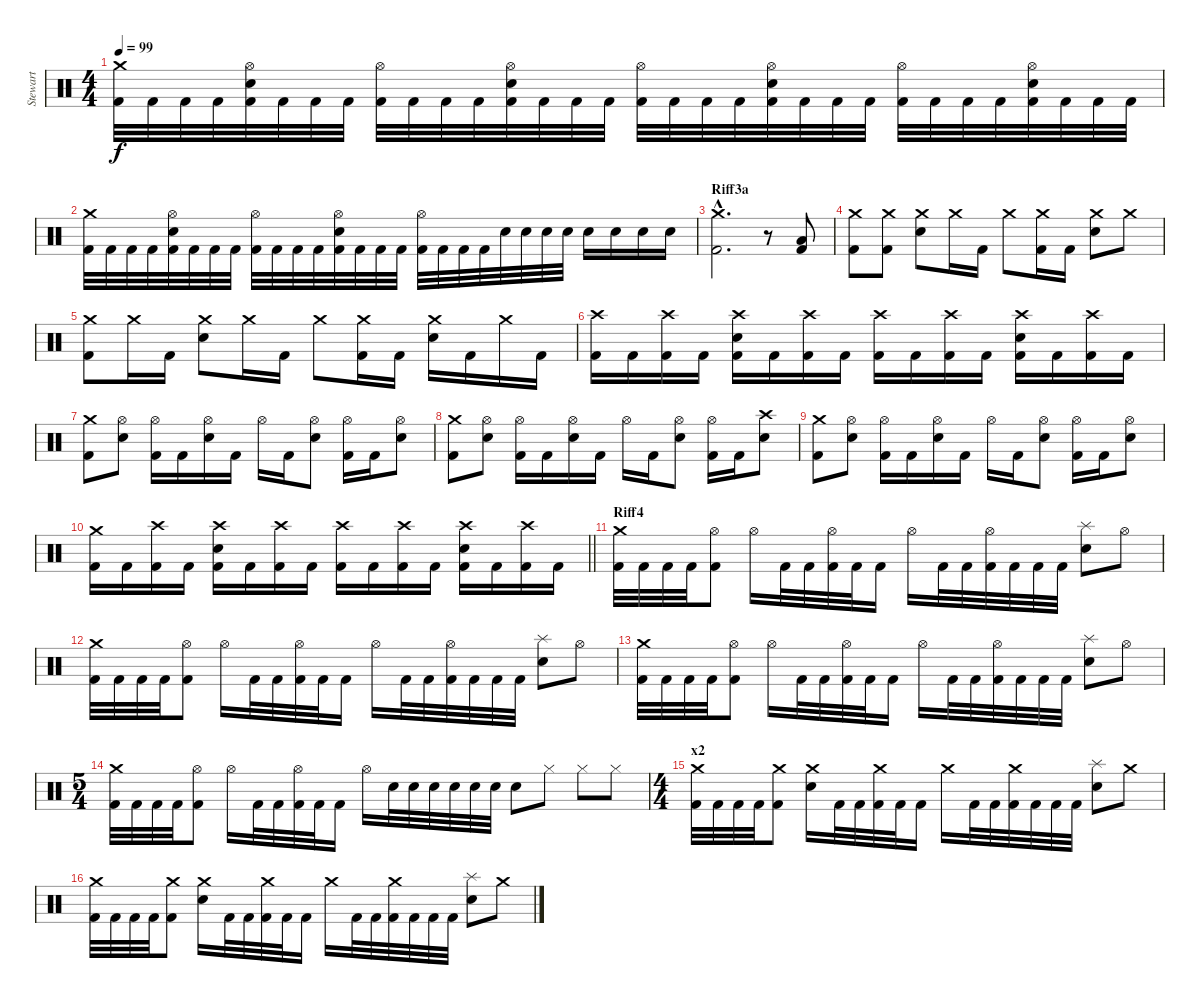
\track ("Stewart" "Stewart") {instrument percussion}
\staff {score}
\articulation defaults
\ts (4 4)
\tempo 99
\clef neutral
\ks c
("Crash medium (hit)" "Kick (hit) 2").32{dy f} "Kick (hit) 2".32 "Kick (hit) 2".32 "Kick (hit) 2".32 ("Hi-Hat (open)" "Electric Snare (hit)" "Kick (hit) 2").32 "Kick (hit) 2".32 "Kick (hit) 2".32 "Kick (hit) 2".32 ("Hi-Hat (open)" "Kick (hit) 2").32 "Kick (hit) 2".32 "Kick (hit) 2".32 "Kick (hit) 2".32 ("Hi-Hat (open)" "Electric Snare (hit)" "Kick (hit) 2").32 "Kick (hit) 2".32 "Kick (hit) 2".32 "Kick (hit) 2".32 ("Hi-Hat (open)" "Kick (hit) 2").32 "Kick (hit) 2".32 "Kick (hit) 2".32 "Kick (hit) 2".32 ("Hi-Hat (open)" "Electric Snare (hit)" "Kick (hit) 2").32 "Kick (hit) 2".32 "Kick (hit) 2".32 "Kick (hit) 2".32 ("Hi-Hat (open)" "Kick (hit) 2").32 "Kick (hit) 2".32 "Kick (hit) 2".32 "Kick (hit) 2".32 ("Hi-Hat (open)" "Electric Snare (hit)" "Kick (hit) 2").32 "Kick (hit) 2".32 "Kick (hit) 2".32 "Kick (hit) 2".32 |
("Crash medium (hit)" "Kick (hit) 2").32 "Kick (hit) 2".32 "Kick (hit) 2".32 "Kick (hit) 2".32 ("Hi-Hat (open)" "Electric Snare (hit)" "Kick (hit) 2").32 "Kick (hit) 2".32 "Kick (hit) 2".32 "Kick (hit) 2".32 ("Hi-Hat (open)" "Kick (hit) 2").32 "Kick (hit) 2".32 "Kick (hit) 2".32 "Kick (hit) 2".32 ("Hi-Hat (open)" "Electric Snare (hit)" "Kick (hit) 2").32 "Kick (hit) 2".32 "Kick (hit) 2".32 "Kick (hit) 2".32 ("Hi-Hat (open)" "Kick (hit) 2").32 "Kick (hit) 2".32 "Kick (hit) 2".32 "Kick (hit) 2".32 "Electric Snare (hit)".32 "Electric Snare (hit)".32 "Electric Snare (hit)".32 "Electric Snare (hit)".32 "Electric Snare (hit)".16 "Electric Snare (hit)".16 "Electric Snare (hit)".16 "Electric Snare (hit)".16 |
\section ("" "Riff3a")
("Crash medium (hit)"{hac} "Kick (hit) 2"{hac}).2{d} r.8 ("Low Tom (hit)" "Kick (hit) 2").8 |
("Crash medium (hit)" "Kick (hit) 2").8 ("Crash medium (hit)" "Kick (hit) 2").8 ("Crash medium (hit)" "Electric Snare (hit)").8 "Crash medium (hit)".16 "Kick (hit) 2".16 "Crash medium (hit)".8 ("Crash medium (hit)" "Kick (hit) 2").16 "Kick (hit) 2".16 ("Crash medium (hit)" "Electric Snare (hit)").8 "Crash medium (hit)".8 |
("Crash medium (hit)" "Kick (hit) 2").8 "Crash medium (hit)".16 "Kick (hit) 2".16 ("Crash medium (hit)" "Electric Snare (hit)").8 "Crash medium (hit)".16 "Kick (hit) 2".16 "Crash medium (hit)".8 ("Crash medium (hit)" "Kick (hit) 2").16 "Kick (hit) 2".16 ("Crash medium (hit)" "Electric Snare (hit)").16 "Kick (hit) 2".16 "Crash medium (hit)".16 "Kick (hit) 2".16 |
("Crash high (hit)" "Kick (hit) 2").16 "Kick (hit) 2".16 ("Crash high (hit)" "Kick (hit) 2").16 "Kick (hit) 2".16 ("Crash high (hit)" "Electric Snare (hit)" "Kick (hit) 2").16 "Kick (hit) 2".16 ("Crash high (hit)" "Kick (hit) 2").16 "Kick (hit) 2".16 ("Crash high (hit)" "Kick (hit) 2").16 "Kick (hit) 2".16 ("Crash high (hit)" "Kick (hit) 2").16 "Kick (hit) 2".16 ("Crash high (hit)" "Electric Snare (hit)" "Kick (hit) 2").16 "Kick (hit) 2".16 ("Crash high (hit)" "Kick (hit) 2").16 "Kick (hit) 2".16 |
("Crash medium (hit)" "Kick (hit) 2").8 ("Hi-Hat (open)" "Electric Snare (hit)").8 ("Hi-Hat (open)" "Kick (hit) 2").16 "Kick (hit) 2".16 ("Hi-Hat (open)" "Electric Snare (hit)").16 "Kick (hit) 2".16 "Hi-Hat (open)".16 "Kick (hit) 2".16 ("Hi-Hat (open)" "Electric Snare (hit)").8 ("Hi-Hat (open)" "Kick (hit) 2").16 "Kick (hit) 2".16 ("Hi-Hat (open)" "Electric Snare (hit)").8 |
("Crash medium (hit)" "Kick (hit) 2").8 ("Hi-Hat (open)" "Electric Snare (hit)").8 ("Hi-Hat (open)" "Kick (hit) 2").16 "Kick (hit) 2".16 ("Hi-Hat (open)" "Electric Snare (hit)").16 "Kick (hit) 2".16 "Hi-Hat (open)".16 "Kick (hit) 2".16 ("Hi-Hat (open)" "Electric Snare (hit)").8 ("Hi-Hat (open)" "Kick (hit) 2").16 "Kick (hit) 2".16 ("Crash high (hit)" "Electric Snare (hit)").8 |
("Crash medium (hit)" "Kick (hit) 2").8 ("Hi-Hat (open)" "Electric Snare (hit)").8 ("Hi-Hat (open)" "Kick (hit) 2").16 "Kick (hit) 2".16 ("Hi-Hat (open)" "Electric Snare (hit)").16 "Kick (hit) 2".16 "Hi-Hat (open)".16 "Kick (hit) 2".16 ("Hi-Hat (open)" "Electric Snare (hit)").8 ("Hi-Hat (open)" "Kick (hit) 2").16 "Kick (hit) 2".16 ("Hi-Hat (open)" "Electric Snare (hit)").8 |
\barLineRight lightlight
("Crash medium (hit)" "Kick (hit) 2").16 "Kick (hit) 2".16 ("Crash high (hit)" "Kick (hit) 2").16 "Kick (hit) 2".16 ("Crash high (hit)" "Electric Snare (hit)" "Kick (hit) 2").16 "Kick (hit) 2".16 ("Crash high (hit)" "Kick (hit) 2").16 "Kick (hit) 2".16 ("Crash high (hit)" "Kick (hit) 2").16 "Kick (hit) 2".16 ("Crash high (hit)" "Kick (hit) 2").16 "Kick (hit) 2".16 ("Crash high (hit)" "Electric Snare (hit)" "Kick (hit) 2").16 "Kick (hit) 2".16 ("Crash high (hit)" "Kick (hit) 2").16 "Kick (hit) 2".16 |
\section ("" "Riff4")
("Crash medium (hit)" "Kick (hit) 2").32 "Kick (hit) 2".32 "Kick (hit) 2".32 "Kick (hit) 2".32 ("Hi-Hat (open)" "Kick (hit) 2").8 "Hi-Hat (open)".16 "Kick (hit) 2".32 "Kick (hit) 2".32 ("Hi-Hat (open)" "Kick (hit) 2").32 "Kick (hit) 2".32 "Kick (hit) 2".16 "Hi-Hat (open)".16 "Kick (hit) 2".32 "Kick (hit) 2".32 ("Hi-Hat (open)" "Kick (hit) 2").32 "Kick (hit) 2".32 "Kick (hit) 2".32 "Kick (hit) 2".32 ("Splash (hit)" "Electric Snare (hit)").8 "Hi-Hat (open)".8 |
("Crash medium (hit)" "Kick (hit) 2").32 "Kick (hit) 2".32 "Kick (hit) 2".32 "Kick (hit) 2".32 ("Hi-Hat (open)" "Kick (hit) 2").8 "Hi-Hat (open)".16 "Kick (hit) 2".32 "Kick (hit) 2".32 ("Hi-Hat (open)" "Kick (hit) 2").32 "Kick (hit) 2".32 "Kick (hit) 2".16 "Hi-Hat (open)".16 "Kick (hit) 2".32 "Kick (hit) 2".32 ("Hi-Hat (open)" "Kick (hit) 2").32 "Kick (hit) 2".32 "Kick (hit) 2".32 "Kick (hit) 2".32 ("Splash (hit)" "Electric Snare (hit)").8 "Hi-Hat (open)".8 |
("Crash medium (hit)" "Kick (hit) 2").32 "Kick (hit) 2".32 "Kick (hit) 2".32 "Kick (hit) 2".32 ("Hi-Hat (open)" "Kick (hit) 2").8 "Hi-Hat (open)".16 "Kick (hit) 2".32 "Kick (hit) 2".32 ("Hi-Hat (open)" "Kick (hit) 2").32 "Kick (hit) 2".32 "Kick (hit) 2".16 "Hi-Hat (open)".16 "Kick (hit) 2".32 "Kick (hit) 2".32 ("Hi-Hat (open)" "Kick (hit) 2").32 "Kick (hit) 2".32 "Kick (hit) 2".32 "Kick (hit) 2".32 ("Splash (hit)" "Electric Snare (hit)").8 "Hi-Hat (open)".8 |
\ts (5 4)
("Crash medium (hit)" "Kick (hit) 2").32 "Kick (hit) 2".32 "Kick (hit) 2".32 "Kick (hit) 2".32 ("Hi-Hat (open)" "Kick (hit) 2").8 "Hi-Hat (open)".16 "Kick (hit) 2".32 "Kick (hit) 2".32 ("Hi-Hat (open)" "Kick (hit) 2").32 "Kick (hit) 2".32 "Kick (hit) 2".16 "Hi-Hat (open)".16 "Electric Snare (hit)".32 "Electric Snare (hit)".32 "Electric Snare (hit)".32 "Electric Snare (hit)".32 "Electric Snare (hit)".32 "Electric Snare (hit)".32 "Electric Snare (hit)".8 "Hi-Hat (closed)".8 "Hi-Hat (closed)".8 "Hi-Hat (closed)".8 |
\ts (4 4)
\section ("" "x2")
("Crash medium (hit)" "Kick (hit) 2").32 "Kick (hit) 2".32 "Kick (hit) 2".32 "Kick (hit) 2".32 ("Crash medium (hit)" "Kick (hit) 2").8 ("Crash medium (hit)" "Electric Snare (hit)").16 "Kick (hit) 2".32 "Kick (hit) 2".32 ("Crash medium (hit)" "Kick (hit) 2").32 "Kick (hit) 2".32 "Kick (hit) 2".16 "Crash medium (hit)".16 "Kick (hit) 2".32 "Kick (hit) 2".32 ("Crash medium (hit)" "Kick (hit) 2").32 "Kick (hit) 2".32 "Kick (hit) 2".32 "Kick (hit) 2".32 ("Splash (hit)" "Electric Snare (hit)").8 "Crash medium (hit)".8 |
("Crash medium (hit)" "Kick (hit) 2").32 "Kick (hit) 2".32 "Kick (hit) 2".32 "Kick (hit) 2".32 ("Crash medium (hit)" "Kick (hit) 2").8 ("Crash medium (hit)" "Electric Snare (hit)").16 "Kick (hit) 2".32 "Kick (hit) 2".32 ("Crash medium (hit)" "Kick (hit) 2").32 "Kick (hit) 2".32 "Kick (hit) 2".16 "Crash medium (hit)".16 "Kick (hit) 2".32 "Kick (hit) 2".32 ("Crash medium (hit)" "Kick (hit) 2").32 "Kick (hit) 2".32 "Kick (hit) 2".32 "Kick (hit) 2".32 ("Splash (hit)" "Electric Snare (hit)").8 "Crash medium (hit)".8
